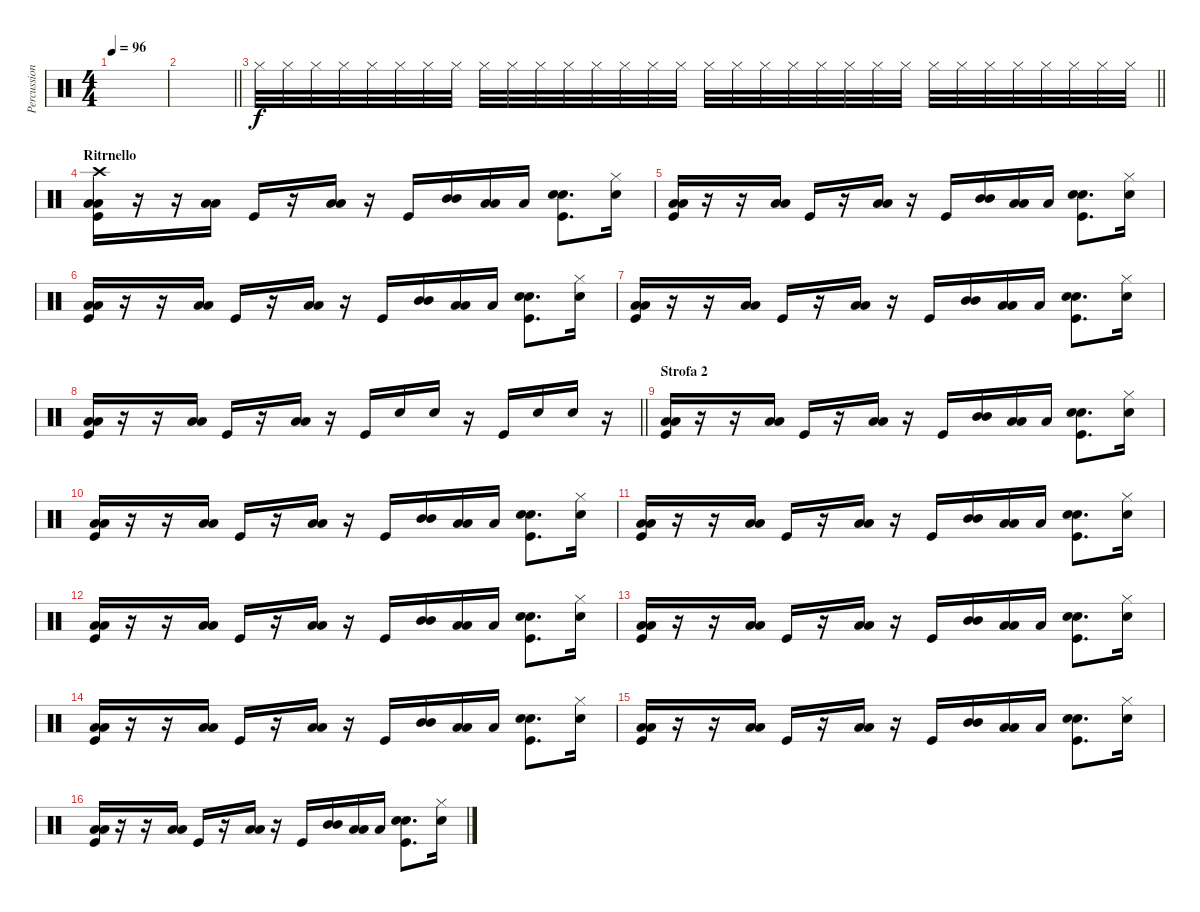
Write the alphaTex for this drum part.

\track ("Percussioni" "Percussion") {instrument percussion}
\staff {score}
\articulation defaults
\ts (4 4)
\tempo 96
\clef neutral
\ks c
|
\barLineRight lightlight
|
\barLineRight lightlight "Hi-Hat (closed)".32{volume 3} "Hi-Hat (closed)".32 "Hi-Hat (closed)".32 "Hi-Hat (closed)".32 "Hi-Hat (closed)".32 "Hi-Hat (closed)".32 "Hi-Hat (closed)".32 "Hi-Hat (closed)".32 "Hi-Hat (closed)".32{volume 4} "Hi-Hat (closed)".32 "Hi-Hat (closed)".32 "Hi-Hat (closed)".32 "Hi-Hat (closed)".32 "Hi-Hat (closed)".32 "Hi-Hat (closed)".32 "Hi-Hat (closed)".32 "Hi-Hat (closed)".32{volume 5} "Hi-Hat (closed)".32 "Hi-Hat (closed)".32 "Hi-Hat (closed)".32 "Hi-Hat (closed)".32 "Hi-Hat (closed)".32 "Hi-Hat (closed)".32 "Hi-Hat (closed)".32 "Hi-Hat (closed)".32 "Hi-Hat (closed)".32 "Hi-Hat (closed)".32 "Hi-Hat (closed)".32 "Hi-Hat (closed)".32 "Hi-Hat (closed)".32 "Hi-Hat (closed)".32 "Hi-Hat (closed)".32
|
\section ("" "Ritrnello")
("Crash high (hit)" "Low Tom (hit)" "Low Tom (hit)" "Kick (hit)").16{volume 16} r.16 r.16 ("Low Tom (hit)" "Low Tom (hit)").16 "Kick (hit)".16 r.16 ("Low Tom (hit)" "Low Tom (hit)").16 r.16 "Kick (hit)".16 ("Mid Tom (hit)" "Mid Tom (hit)").16 ("Low Tom (hit)" "Low Tom (hit)").16 "Low Tom (hit)".16 ("Snare (hit) 2" "Snare (hit) 2" "Kick (hit)").8{d} ("Hi-Hat (closed)" "Snare (hit) 2").16 |
("Low Tom (hit)" "Low Tom (hit)" "Kick (hit)").16 r.16 r.16 ("Low Tom (hit)" "Low Tom (hit)").16 "Kick (hit)".16 r.16 ("Low Tom (hit)" "Low Tom (hit)").16 r.16 "Kick (hit)".16 ("Mid Tom (hit)" "Mid Tom (hit)").16 ("Low Tom (hit)" "Low Tom (hit)").16 "Low Tom (hit)".16 ("Snare (hit) 2" "Snare (hit) 2" "Kick (hit)").8{d} ("Hi-Hat (closed)" "Snare (hit) 2").16 |
("Low Tom (hit)" "Low Tom (hit)" "Kick (hit)").16 r.16 r.16 ("Low Tom (hit)" "Low Tom (hit)").16 "Kick (hit)".16 r.16 ("Low Tom (hit)" "Low Tom (hit)").16 r.16 "Kick (hit)".16 ("Mid Tom (hit)" "Mid Tom (hit)").16 ("Low Tom (hit)" "Low Tom (hit)").16 "Low Tom (hit)".16 ("Snare (hit) 2" "Snare (hit) 2" "Kick (hit)").8{d} ("Hi-Hat (closed)" "Snare (hit) 2").16 |
("Low Tom (hit)" "Low Tom (hit)" "Kick (hit)").16 r.16 r.16 ("Low Tom (hit)" "Low Tom (hit)").16 "Kick (hit)".16 r.16 ("Low Tom (hit)" "Low Tom (hit)").16 r.16 "Kick (hit)".16 ("Mid Tom (hit)" "Mid Tom (hit)").16 ("Low Tom (hit)" "Low Tom (hit)").16 "Low Tom (hit)".16 ("Snare (hit) 2" "Snare (hit) 2" "Kick (hit)").8{d} ("Hi-Hat (closed)" "Snare (hit) 2").16 |
\barLineRight lightlight
("Low Tom (hit)" "Low Tom (hit)" "Kick (hit)").16 r.16 r.16 ("Low Tom (hit)" "Low Tom (hit)").16 "Kick (hit)".16 r.16 ("Low Tom (hit)" "Low Tom (hit)").16 r.16 "Kick (hit)".16 "Snare (hit) 2".16 "Snare (hit) 2".16 r.16 "Kick (hit)".16 "Snare (hit) 2".16 "Snare (hit) 2".16 r.16 |
\section ("" "Strofa 2")
("Low Tom (hit)" "Low Tom (hit)" "Kick (hit)").16 r.16 r.16 ("Low Tom (hit)" "Low Tom (hit)").16 "Kick (hit)".16 r.16 ("Low Tom (hit)" "Low Tom (hit)").16 r.16 "Kick (hit)".16 ("Mid Tom (hit)" "Mid Tom (hit)").16 ("Low Tom (hit)" "Low Tom (hit)").16 "Low Tom (hit)".16 ("Snare (hit) 2" "Snare (hit) 2" "Kick (hit)").8{d} ("Hi-Hat (closed)" "Snare (hit) 2").16 |
("Low Tom (hit)" "Low Tom (hit)" "Kick (hit)").16 r.16 r.16 ("Low Tom (hit)" "Low Tom (hit)").16 "Kick (hit)".16 r.16 ("Low Tom (hit)" "Low Tom (hit)").16 r.16 "Kick (hit)".16 ("Mid Tom (hit)" "Mid Tom (hit)").16 ("Low Tom (hit)" "Low Tom (hit)").16 "Low Tom (hit)".16 ("Snare (hit) 2" "Snare (hit) 2" "Kick (hit)").8{d} ("Hi-Hat (closed)" "Snare (hit) 2").16 |
("Low Tom (hit)" "Low Tom (hit)" "Kick (hit)").16 r.16 r.16 ("Low Tom (hit)" "Low Tom (hit)").16 "Kick (hit)".16 r.16 ("Low Tom (hit)" "Low Tom (hit)").16 r.16 "Kick (hit)".16 ("Mid Tom (hit)" "Mid Tom (hit)").16 ("Low Tom (hit)" "Low Tom (hit)").16 "Low Tom (hit)".16 ("Snare (hit) 2" "Snare (hit) 2" "Kick (hit)").8{d} ("Hi-Hat (closed)" "Snare (hit) 2").16 |
("Low Tom (hit)" "Low Tom (hit)" "Kick (hit)").16 r.16 r.16 ("Low Tom (hit)" "Low Tom (hit)").16 "Kick (hit)".16 r.16 ("Low Tom (hit)" "Low Tom (hit)").16 r.16 "Kick (hit)".16 ("Mid Tom (hit)" "Mid Tom (hit)").16 ("Low Tom (hit)" "Low Tom (hit)").16 "Low Tom (hit)".16 ("Snare (hit) 2" "Snare (hit) 2" "Kick (hit)").8{d} ("Hi-Hat (closed)" "Snare (hit) 2").16 |
("Low Tom (hit)" "Low Tom (hit)" "Kick (hit)").16 r.16 r.16 ("Low Tom (hit)" "Low Tom (hit)").16 "Kick (hit)".16 r.16 ("Low Tom (hit)" "Low Tom (hit)").16 r.16 "Kick (hit)".16 ("Mid Tom (hit)" "Mid Tom (hit)").16 ("Low Tom (hit)" "Low Tom (hit)").16 "Low Tom (hit)".16 ("Snare (hit) 2" "Snare (hit) 2" "Kick (hit)").8{d} ("Hi-Hat (closed)" "Snare (hit) 2").16 |
("Low Tom (hit)" "Low Tom (hit)" "Kick (hit)").16 r.16 r.16 ("Low Tom (hit)" "Low Tom (hit)").16 "Kick (hit)".16 r.16 ("Low Tom (hit)" "Low Tom (hit)").16 r.16 "Kick (hit)".16 ("Mid Tom (hit)" "Mid Tom (hit)").16 ("Low Tom (hit)" "Low Tom (hit)").16 "Low Tom (hit)".16 ("Snare (hit) 2" "Snare (hit) 2" "Kick (hit)").8{d} ("Hi-Hat (closed)" "Snare (hit) 2").16 |
("Low Tom (hit)" "Low Tom (hit)" "Kick (hit)").16 r.16 r.16 ("Low Tom (hit)" "Low Tom (hit)").16 "Kick (hit)".16 r.16 ("Low Tom (hit)" "Low Tom (hit)").16 r.16 "Kick (hit)".16 ("Mid Tom (hit)" "Mid Tom (hit)").16 ("Low Tom (hit)" "Low Tom (hit)").16 "Low Tom (hit)".16 ("Snare (hit) 2" "Snare (hit) 2" "Kick (hit)").8{d} ("Hi-Hat (closed)" "Snare (hit) 2").16 |
("Low Tom (hit)" "Low Tom (hit)" "Kick (hit)").16 r.16 r.16 ("Low Tom (hit)" "Low Tom (hit)").16 "Kick (hit)".16 r.16 ("Low Tom (hit)" "Low Tom (hit)").16 r.16 "Kick (hit)".16 ("Mid Tom (hit)" "Mid Tom (hit)").16 ("Low Tom (hit)" "Low Tom (hit)").16 "Low Tom (hit)".16 ("Snare (hit) 2" "Snare (hit) 2" "Kick (hit)").8{d} ("Hi-Hat (closed)" "Snare (hit) 2").16
